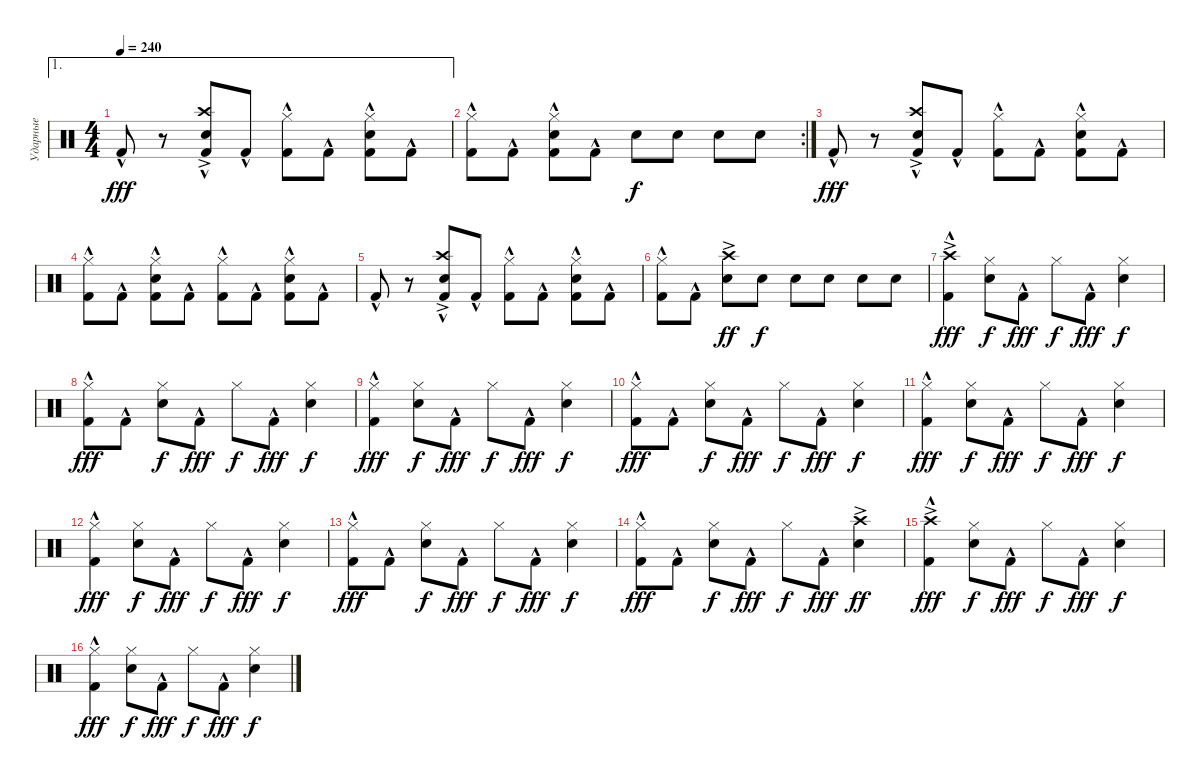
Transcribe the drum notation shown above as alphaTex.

\track ("Ударные" "Ударные") {instrument percussion}
\staff {score}
\articulation defaults
\ae 1
\ts (4 4)
\tempo 240
\clef neutral
\ks c "Kick (hit) 2"{hac}.8{dy fff}
r.8 ("Crash high (hit)"{ac} "Snare (hit) 2" "Kick (hit) 2"{hac}).8 "Kick (hit) 2"{hac}.8 ("Hi-Hat (closed)" "Kick (hit) 2"{hac}).8 "Kick (hit) 2"{hac}.8 ("Hi-Hat (closed)" "Snare (hit) 2" "Kick (hit) 2"{hac}).8 "Kick (hit) 2"{hac}.8 |
\rc 2
("Hi-Hat (closed)" "Kick (hit) 2"{hac}).8 "Kick (hit) 2"{hac}.8 ("Hi-Hat (closed)" "Snare (hit) 2" "Kick (hit) 2"{hac}).8 "Kick (hit) 2"{hac}.8 "Snare (hit) 2".8{dy f} "Snare (hit) 2".8 "Snare (hit) 2".8 "Snare (hit) 2".8 |
"Kick (hit) 2"{hac}.8{dy fff} r.8 ("Crash high (hit)"{ac} "Snare (hit) 2" "Kick (hit) 2"{hac}).8 "Kick (hit) 2"{hac}.8 ("Hi-Hat (closed)" "Kick (hit) 2"{hac}).8 "Kick (hit) 2"{hac}.8 ("Hi-Hat (closed)" "Snare (hit) 2" "Kick (hit) 2"{hac}).8 "Kick (hit) 2"{hac}.8 |
("Hi-Hat (closed)" "Kick (hit) 2"{hac}).8 "Kick (hit) 2"{hac}.8 ("Hi-Hat (closed)" "Snare (hit) 2" "Kick (hit) 2"{hac}).8 "Kick (hit) 2"{hac}.8 ("Hi-Hat (closed)" "Kick (hit) 2"{hac}).8 "Kick (hit) 2"{hac}.8 ("Hi-Hat (closed)" "Snare (hit) 2" "Kick (hit) 2"{hac}).8 "Kick (hit) 2"{hac}.8 |
"Kick (hit) 2"{hac}.8 r.8 ("Crash high (hit)"{ac} "Snare (hit) 2" "Kick (hit) 2"{hac}).8 "Kick (hit) 2"{hac}.8 ("Hi-Hat (closed)" "Kick (hit) 2"{hac}).8 "Kick (hit) 2"{hac}.8 ("Hi-Hat (closed)" "Snare (hit) 2" "Kick (hit) 2"{hac}).8 "Kick (hit) 2"{hac}.8 |
("Hi-Hat (closed)" "Kick (hit) 2"{hac}).8 "Kick (hit) 2"{hac}.8 ("Crash high (hit)"{ac} "Snare (hit) 2").8{dy ff} "Snare (hit) 2".8{dy f} "Snare (hit) 2".8 "Snare (hit) 2".8 "Snare (hit) 2".8 "Snare (hit) 2".8 |
("Crash high (hit)"{ac} "Kick (hit) 2"{hac}).4{dy fff} ("Hi-Hat (closed)" "Snare (hit) 2").8{dy f} "Kick (hit) 2"{hac}.8{dy fff} "Hi-Hat (closed)".8{dy f} "Kick (hit) 2"{hac}.8{dy fff} ("Hi-Hat (closed)" "Snare (hit) 2").4{dy f} |
("Hi-Hat (closed)" "Kick (hit) 2"{hac}).8{dy fff} "Kick (hit) 2"{hac}.8 ("Hi-Hat (closed)" "Snare (hit) 2").8{dy f} "Kick (hit) 2"{hac}.8{dy fff} "Hi-Hat (closed)".8{dy f} "Kick (hit) 2"{hac}.8{dy fff} ("Hi-Hat (closed)" "Snare (hit) 2").4{dy f} |
("Hi-Hat (closed)" "Kick (hit) 2"{hac}).4{dy fff} ("Hi-Hat (closed)" "Snare (hit) 2").8{dy f} "Kick (hit) 2"{hac}.8{dy fff} "Hi-Hat (closed)".8{dy f} "Kick (hit) 2"{hac}.8{dy fff} ("Hi-Hat (closed)" "Snare (hit) 2").4{dy f} |
("Hi-Hat (closed)" "Kick (hit) 2"{hac}).8{dy fff} "Kick (hit) 2"{hac}.8 ("Hi-Hat (closed)" "Snare (hit) 2").8{dy f} "Kick (hit) 2"{hac}.8{dy fff} "Hi-Hat (closed)".8{dy f} "Kick (hit) 2"{hac}.8{dy fff} ("Hi-Hat (closed)" "Snare (hit) 2").4{dy f} |
("Hi-Hat (closed)" "Kick (hit) 2"{hac}).4{dy fff} ("Hi-Hat (closed)" "Snare (hit) 2").8{dy f} "Kick (hit) 2"{hac}.8{dy fff} "Hi-Hat (closed)".8{dy f} "Kick (hit) 2"{hac}.8{dy fff} ("Hi-Hat (closed)" "Snare (hit) 2").4{dy f} |
("Hi-Hat (closed)" "Kick (hit) 2"{hac}).4{dy fff} ("Hi-Hat (closed)" "Snare (hit) 2").8{dy f} "Kick (hit) 2"{hac}.8{dy fff} "Hi-Hat (closed)".8{dy f} "Kick (hit) 2"{hac}.8{dy fff} ("Hi-Hat (closed)" "Snare (hit) 2").4{dy f} |
("Hi-Hat (closed)" "Kick (hit) 2"{hac}).8{dy fff} "Kick (hit) 2"{hac}.8 ("Hi-Hat (closed)" "Snare (hit) 2").8{dy f} "Kick (hit) 2"{hac}.8{dy fff} "Hi-Hat (closed)".8{dy f} "Kick (hit) 2"{hac}.8{dy fff} ("Hi-Hat (closed)" "Snare (hit) 2").4{dy f} |
("Hi-Hat (closed)" "Kick (hit) 2"{hac}).8{dy fff} "Kick (hit) 2"{hac}.8 ("Hi-Hat (closed)" "Snare (hit) 2").8{dy f} "Kick (hit) 2"{hac}.8{dy fff} "Hi-Hat (closed)".8{dy f} "Kick (hit) 2"{hac}.8{dy fff} ("Crash high (hit)"{ac} "Snare (hit) 2").4{dy ff} |
("Crash high (hit)"{ac} "Kick (hit) 2"{hac}).4{dy fff} ("Hi-Hat (closed)" "Snare (hit) 2").8{dy f} "Kick (hit) 2"{hac}.8{dy fff} "Hi-Hat (closed)".8{dy f} "Kick (hit) 2"{hac}.8{dy fff} ("Hi-Hat (closed)" "Snare (hit) 2").4{dy f} |
("Hi-Hat (closed)" "Kick (hit) 2"{hac}).4{dy fff} ("Hi-Hat (closed)" "Snare (hit) 2").8{dy f} "Kick (hit) 2"{hac}.8{dy fff} "Hi-Hat (closed)".8{dy f} "Kick (hit) 2"{hac}.8{dy fff} ("Hi-Hat (closed)" "Snare (hit) 2").4{dy f}
